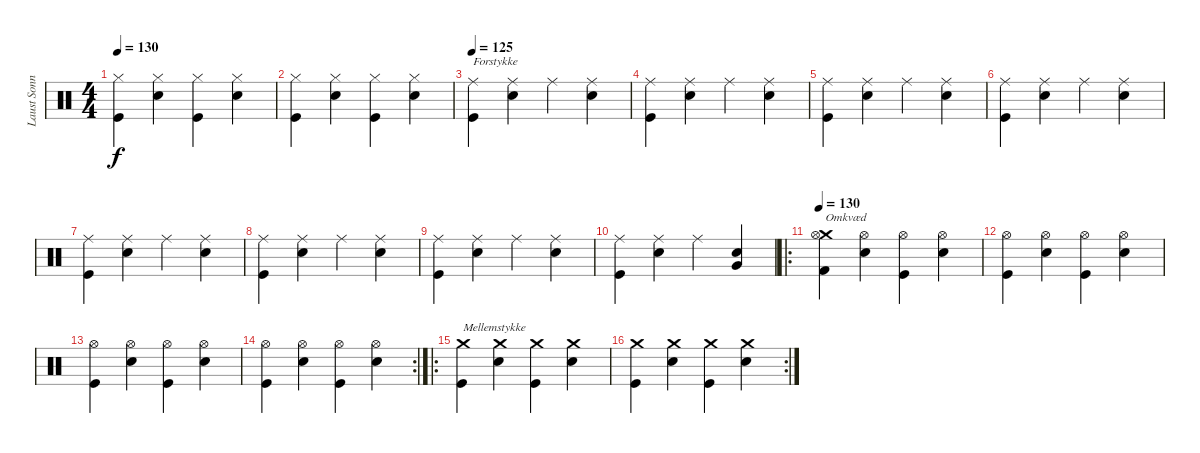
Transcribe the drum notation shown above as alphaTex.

\track ("Laust Sonne (Trommer)" "Laust Sonn") {instrument percussion}
\staff {score}
\articulation defaults
\ts (4 4)
\tempo 130
\clef neutral
\ks c
("Hi-Hat (closed)" "Kick (hit)").4{dy f} ("Hi-Hat (closed)" "Snare (hit) 2").4 ("Hi-Hat (closed)" "Kick (hit)").4 ("Hi-Hat (closed)" "Snare (hit) 2").4 |
("Hi-Hat (closed)" "Kick (hit)").4 ("Hi-Hat (closed)" "Snare (hit) 2").4 ("Hi-Hat (closed)" "Kick (hit)").4 ("Hi-Hat (closed)" "Snare (hit) 2").4 |
\tempo 125
("Ride (middle)" "Kick (hit)").4{txt "Forstykke"} ("Ride (middle)" "Snare (hit) 2").4 "Ride (middle)".4 ("Ride (middle)" "Snare (hit) 2").4 |
("Ride (middle)" "Kick (hit)").4 ("Ride (middle)" "Snare (hit) 2").4 "Ride (middle)".4 ("Ride (middle)" "Snare (hit) 2").4 |
("Ride (middle)" "Kick (hit)").4 ("Ride (middle)" "Snare (hit) 2").4 "Ride (middle)".4 ("Ride (middle)" "Snare (hit) 2").4 |
("Ride (middle)" "Kick (hit)").4 ("Ride (middle)" "Snare (hit) 2").4 "Ride (middle)".4 ("Ride (middle)" "Snare (hit) 2").4 |
("Ride (middle)" "Kick (hit)").4 ("Ride (middle)" "Snare (hit) 2").4 "Ride (middle)".4 ("Ride (middle)" "Snare (hit) 2").4 |
("Ride (middle)" "Kick (hit)").4 ("Ride (middle)" "Snare (hit) 2").4 "Ride (middle)".4 ("Ride (middle)" "Snare (hit) 2").4 |
("Ride (middle)" "Kick (hit)").4 ("Ride (middle)" "Snare (hit) 2").4 "Ride (middle)".4 ("Ride (middle)" "Snare (hit) 2").4 |
("Ride (middle)" "Kick (hit)").4 ("Ride (middle)" "Snare (hit) 2").4 "Ride (middle)".4 ("Very Low Tom (hit)" "Snare (hit) 2").4 |
\ro
\tempo 130
("Crash medium (hit)" "Hi-Hat (open)" "Kick (hit) 2").4{txt "Omkvæd"} ("Hi-Hat (open)" "Snare (hit) 2").4 ("Hi-Hat (open)" "Kick (hit)").4 ("Hi-Hat (open)" "Snare (hit) 2").4 |
("Hi-Hat (open)" "Kick (hit)").4 ("Hi-Hat (open)" "Snare (hit) 2").4 ("Hi-Hat (open)" "Kick (hit)").4 ("Hi-Hat (open)" "Snare (hit) 2").4 |
("Hi-Hat (open)" "Kick (hit)").4 ("Hi-Hat (open)" "Snare (hit) 2").4 ("Hi-Hat (open)" "Kick (hit)").4 ("Hi-Hat (open)" "Snare (hit) 2").4 |
\rc 2
("Hi-Hat (open)" "Kick (hit)").4 ("Hi-Hat (open)" "Snare (hit) 2").4 ("Hi-Hat (open)" "Kick (hit)").4 ("Hi-Hat (open)" "Snare (hit) 2").4 |
\ro
("Crash medium (hit)" "Kick (hit)").4{txt "Mellemstykke"} ("Crash medium (hit)" "Snare (hit) 2").4 ("Crash medium (hit)" "Kick (hit)").4 ("Crash medium (hit)" "Snare (hit) 2").4 |
\rc 2
("Crash medium (hit)" "Kick (hit)").4 ("Crash medium (hit)" "Snare (hit) 2").4 ("Crash medium (hit)" "Kick (hit)").4 ("Crash medium (hit)" "Snare (hit) 2").4
